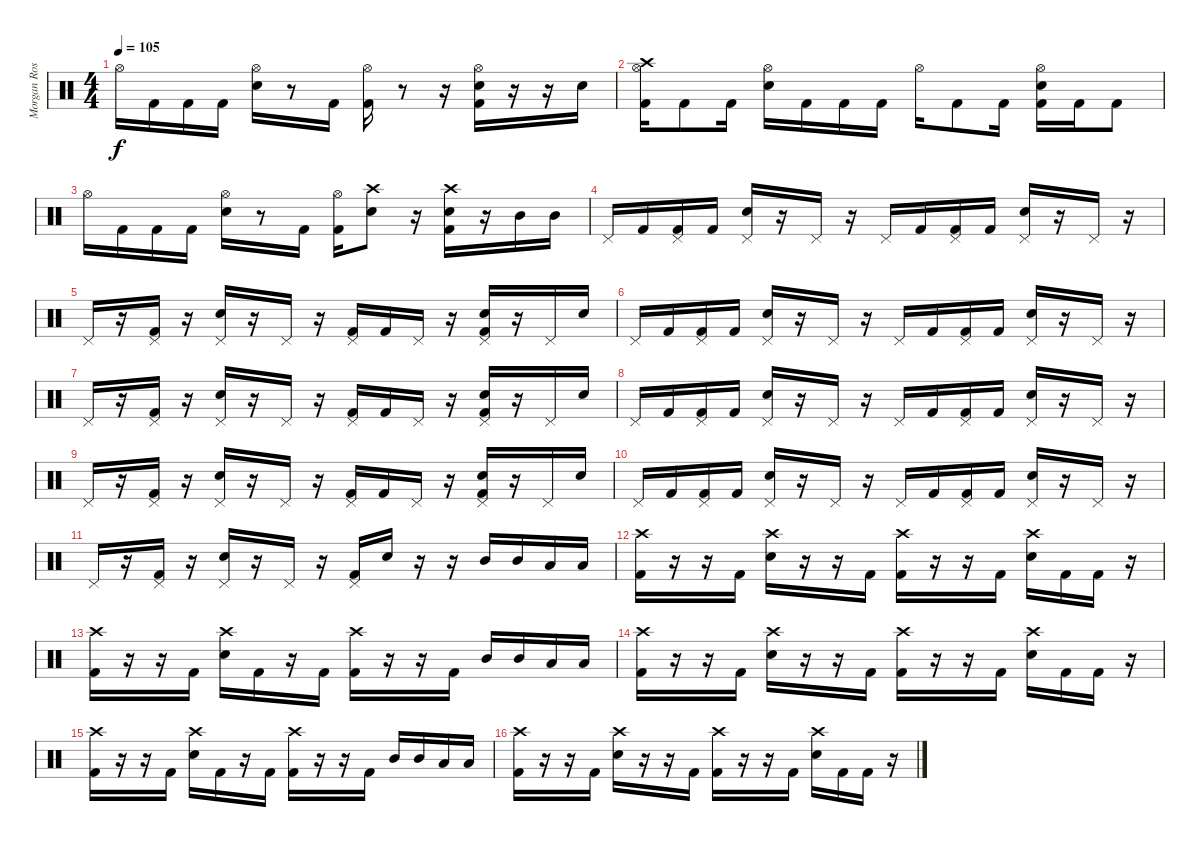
\track ("Morgan Rose - Drums" "Morgan Ros") {instrument percussion}
\staff {score}
\articulation defaults
\ts (4 4)
\tempo 105
\clef neutral
\ks c "Hi-Hat (open)".16{dy f} "Kick (hit) 2".16 "Kick (hit) 2".16 "Kick (hit) 2".16
("Snare (hit) 2" "Hi-Hat (open)").16 r.8 "Kick (hit) 2".16 ("Kick (hit) 2" "Hi-Hat (open)").16 r.8 r.16 ("Kick (hit) 2" "Snare (hit) 2" "Hi-Hat (open)").16 r.16 r.16 "Snare (hit) 2".16 |
("Kick (hit) 2" "Hi-Hat (open)" "Crash high (hit)").16 "Kick (hit) 2".8 "Kick (hit) 2".16 ("Snare (hit) 2" "Hi-Hat (open)").16 "Kick (hit) 2".16 "Kick (hit) 2".16 "Kick (hit) 2".16 "Hi-Hat (open)".16 "Kick (hit) 2".8 "Kick (hit) 2".16 ("Kick (hit) 2" "Snare (hit) 2" "Hi-Hat (open)").16 "Kick (hit) 2".16 "Kick (hit) 2".8 |
"Hi-Hat (open)".16 "Kick (hit) 2".16 "Kick (hit) 2".16 "Kick (hit) 2".16 ("Snare (hit) 2" "Hi-Hat (open)").16 r.8 "Kick (hit) 2".16 ("Kick (hit) 2" "Hi-Hat (open)").16 ("Snare (hit) 2" "Crash high (hit)").8 r.16 ("Kick (hit) 2" "Snare (hit) 2" "Crash high (hit)").16 r.16 "Mid Tom (hit)".16 "Mid Tom (hit)".16 |
"Pedal Hi-Hat (hit)".16 "Kick (hit) 2".16 ("Kick (hit) 2" "Pedal Hi-Hat (hit)").16 "Kick (hit) 2".16 ("Snare (hit) 2" "Pedal Hi-Hat (hit)").16 r.16 "Pedal Hi-Hat (hit)".16 r.16 "Pedal Hi-Hat (hit)".16 "Kick (hit) 2".16 ("Kick (hit) 2" "Pedal Hi-Hat (hit)").16 "Kick (hit) 2".16 ("Snare (hit) 2" "Pedal Hi-Hat (hit)").16 r.16 "Pedal Hi-Hat (hit)".16 r.16 |
"Pedal Hi-Hat (hit)".16 r.16 ("Kick (hit) 2" "Pedal Hi-Hat (hit)").16 r.16 ("Snare (hit) 2" "Pedal Hi-Hat (hit)").16 r.16 "Pedal Hi-Hat (hit)".16 r.16 ("Kick (hit) 2" "Pedal Hi-Hat (hit)").16 "Kick (hit) 2".16 "Pedal Hi-Hat (hit)".16 r.16 ("Kick (hit) 2" "Snare (hit) 2" "Pedal Hi-Hat (hit)").16 r.16 "Pedal Hi-Hat (hit)".16 "Snare (hit) 2".16 |
"Pedal Hi-Hat (hit)".16 "Kick (hit) 2".16 ("Kick (hit) 2" "Pedal Hi-Hat (hit)").16 "Kick (hit) 2".16 ("Snare (hit) 2" "Pedal Hi-Hat (hit)").16 r.16 "Pedal Hi-Hat (hit)".16 r.16 "Pedal Hi-Hat (hit)".16 "Kick (hit) 2".16 ("Kick (hit) 2" "Pedal Hi-Hat (hit)").16 "Kick (hit) 2".16 ("Snare (hit) 2" "Pedal Hi-Hat (hit)").16 r.16 "Pedal Hi-Hat (hit)".16 r.16 |
"Pedal Hi-Hat (hit)".16 r.16 ("Kick (hit) 2" "Pedal Hi-Hat (hit)").16 r.16 ("Snare (hit) 2" "Pedal Hi-Hat (hit)").16 r.16 "Pedal Hi-Hat (hit)".16 r.16 ("Kick (hit) 2" "Pedal Hi-Hat (hit)").16 "Kick (hit) 2".16 "Pedal Hi-Hat (hit)".16 r.16 ("Kick (hit) 2" "Snare (hit) 2" "Pedal Hi-Hat (hit)").16 r.16 "Pedal Hi-Hat (hit)".16 "Snare (hit) 2".16 |
"Pedal Hi-Hat (hit)".16 "Kick (hit) 2".16 ("Kick (hit) 2" "Pedal Hi-Hat (hit)").16 "Kick (hit) 2".16 ("Snare (hit) 2" "Pedal Hi-Hat (hit)").16 r.16 "Pedal Hi-Hat (hit)".16 r.16 "Pedal Hi-Hat (hit)".16 "Kick (hit) 2".16 ("Kick (hit) 2" "Pedal Hi-Hat (hit)").16 "Kick (hit) 2".16 ("Snare (hit) 2" "Pedal Hi-Hat (hit)").16 r.16 "Pedal Hi-Hat (hit)".16 r.16 |
"Pedal Hi-Hat (hit)".16 r.16 ("Kick (hit) 2" "Pedal Hi-Hat (hit)").16 r.16 ("Snare (hit) 2" "Pedal Hi-Hat (hit)").16 r.16 "Pedal Hi-Hat (hit)".16 r.16 ("Kick (hit) 2" "Pedal Hi-Hat (hit)").16 "Kick (hit) 2".16 "Pedal Hi-Hat (hit)".16 r.16 ("Kick (hit) 2" "Snare (hit) 2" "Pedal Hi-Hat (hit)").16 r.16 "Pedal Hi-Hat (hit)".16 "Snare (hit) 2".16 |
"Pedal Hi-Hat (hit)".16 "Kick (hit) 2".16 ("Kick (hit) 2" "Pedal Hi-Hat (hit)").16 "Kick (hit) 2".16 ("Snare (hit) 2" "Pedal Hi-Hat (hit)").16 r.16 "Pedal Hi-Hat (hit)".16 r.16 "Pedal Hi-Hat (hit)".16 "Kick (hit) 2".16 ("Kick (hit) 2" "Pedal Hi-Hat (hit)").16 "Kick (hit) 2".16 ("Snare (hit) 2" "Pedal Hi-Hat (hit)").16 r.16 "Pedal Hi-Hat (hit)".16 r.16 |
"Pedal Hi-Hat (hit)".16 r.16 ("Kick (hit) 2" "Pedal Hi-Hat (hit)").16 r.16 ("Snare (hit) 2" "Pedal Hi-Hat (hit)").16 r.16 "Pedal Hi-Hat (hit)".16 r.16 ("Kick (hit) 2" "Pedal Hi-Hat (hit)").16 "Snare (hit) 2".16 r.16 r.16 "Mid Tom (hit)".16 "Mid Tom (hit)".16 "Low Tom (hit)".16 "Low Tom (hit)".16 |
("Kick (hit) 2" "Crash high (hit)").16 r.16 r.16 "Kick (hit) 2".16 ("Snare (hit) 2" "Crash high (hit)").16 r.16 r.16 "Kick (hit) 2".16 ("Kick (hit) 2" "Crash high (hit)").16 r.16 r.16 "Kick (hit) 2".16 ("Snare (hit) 2" "Crash high (hit)").16 "Kick (hit) 2".16 "Kick (hit) 2".16 r.16 |
("Kick (hit) 2" "Crash high (hit)").16 r.16 r.16 "Kick (hit) 2".16 ("Snare (hit) 2" "Crash high (hit)").16 "Kick (hit) 2".16 r.16 "Kick (hit) 2".16 ("Kick (hit) 2" "Crash high (hit)").16 r.16 r.16 "Kick (hit) 2".16 "Mid Tom (hit)".16 "Mid Tom (hit)".16 "Low Tom (hit)".16 "Low Tom (hit)".16 |
("Kick (hit) 2" "Crash high (hit)").16 r.16 r.16 "Kick (hit) 2".16 ("Snare (hit) 2" "Crash high (hit)").16 r.16 r.16 "Kick (hit) 2".16 ("Kick (hit) 2" "Crash high (hit)").16 r.16 r.16 "Kick (hit) 2".16 ("Snare (hit) 2" "Crash high (hit)").16 "Kick (hit) 2".16 "Kick (hit) 2".16 r.16 |
("Kick (hit) 2" "Crash high (hit)").16 r.16 r.16 "Kick (hit) 2".16 ("Snare (hit) 2" "Crash high (hit)").16 "Kick (hit) 2".16 r.16 "Kick (hit) 2".16 ("Kick (hit) 2" "Crash high (hit)").16 r.16 r.16 "Kick (hit) 2".16 "Mid Tom (hit)".16 "Mid Tom (hit)".16 "Low Tom (hit)".16 "Low Tom (hit)".16 |
("Kick (hit) 2" "Crash high (hit)").16 r.16 r.16 "Kick (hit) 2".16 ("Snare (hit) 2" "Crash high (hit)").16 r.16 r.16 "Kick (hit) 2".16 ("Kick (hit) 2" "Crash high (hit)").16 r.16 r.16 "Kick (hit) 2".16 ("Snare (hit) 2" "Crash high (hit)").16 "Kick (hit) 2".16 "Kick (hit) 2".16 r.16
